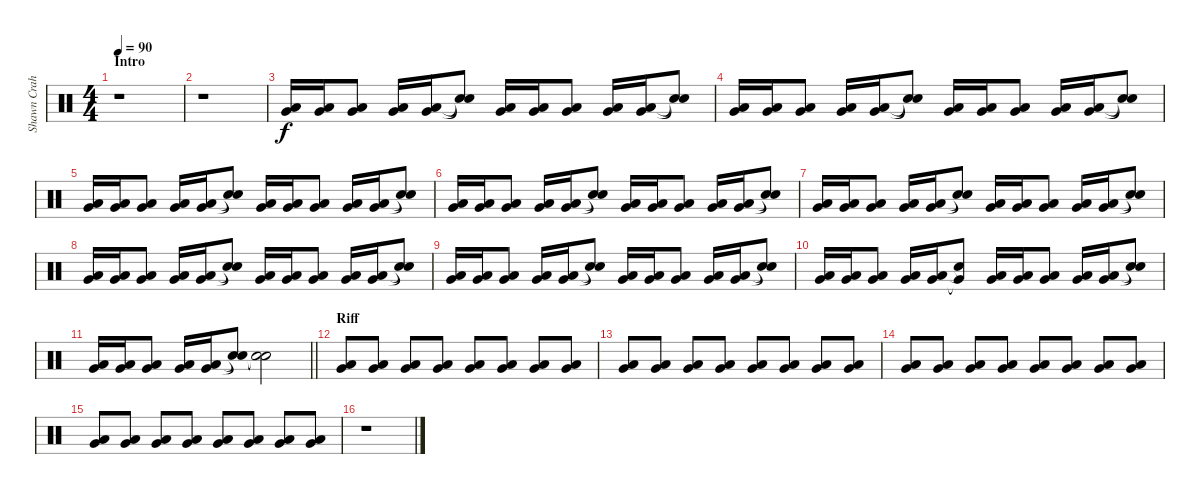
\track ("Shawn Crahan" "Shawn Crah") {instrument percussion}
\staff {score}
\articulation defaults
\ts (4 4)
\section ("" "Intro ")
\tempo 90
\clef neutral
\ks c
r.1{dy f} |
r.1 |
("Very Low Tom (hit)" "Low Floor Tom (hit)").16 ("Very Low Tom (hit)" "Low Floor Tom (hit)").16 ("Very Low Tom (hit)" "Low Floor Tom (hit)").8 ("Very Low Tom (hit)" "Low Floor Tom (hit)").16 ("Very Low Tom (hit)" "Low Floor Tom (hit)").16 ("Snare (hit)"{t} "Snare (hit)"{t}).8 ("Very Low Tom (hit)" "Low Floor Tom (hit)").16 ("Very Low Tom (hit)" "Low Floor Tom (hit)").16 ("Very Low Tom (hit)" "Low Floor Tom (hit)").8 ("Very Low Tom (hit)" "Low Floor Tom (hit)").16 ("Very Low Tom (hit)" "Low Floor Tom (hit)").16 ("Snare (hit)"{t} "Snare (hit)"{t}).8 |
("Very Low Tom (hit)" "Low Floor Tom (hit)").16 ("Very Low Tom (hit)" "Low Floor Tom (hit)").16 ("Very Low Tom (hit)" "Low Floor Tom (hit)").8 ("Very Low Tom (hit)" "Low Floor Tom (hit)").16 ("Very Low Tom (hit)" "Low Floor Tom (hit)").16 ("Snare (hit)"{t} "Snare (hit)"{t}).8 ("Very Low Tom (hit)" "Low Floor Tom (hit)").16 ("Very Low Tom (hit)" "Low Floor Tom (hit)").16 ("Very Low Tom (hit)" "Low Floor Tom (hit)").8 ("Very Low Tom (hit)" "Low Floor Tom (hit)").16 ("Very Low Tom (hit)" "Low Floor Tom (hit)").16 ("Snare (hit)"{t} "Snare (hit)"{t}).8 |
("Very Low Tom (hit)" "Low Floor Tom (hit)").16 ("Very Low Tom (hit)" "Low Floor Tom (hit)").16 ("Very Low Tom (hit)" "Low Floor Tom (hit)").8 ("Very Low Tom (hit)" "Low Floor Tom (hit)").16 ("Very Low Tom (hit)" "Low Floor Tom (hit)").16 ("Snare (hit)"{t} "Snare (hit)"{t}).8 ("Very Low Tom (hit)" "Low Floor Tom (hit)").16 ("Very Low Tom (hit)" "Low Floor Tom (hit)").16 ("Very Low Tom (hit)" "Low Floor Tom (hit)").8 ("Very Low Tom (hit)" "Low Floor Tom (hit)").16 ("Very Low Tom (hit)" "Low Floor Tom (hit)").16 ("Snare (hit)"{t} "Snare (hit)"{t}).8 |
("Very Low Tom (hit)" "Low Floor Tom (hit)").16 ("Very Low Tom (hit)" "Low Floor Tom (hit)").16 ("Very Low Tom (hit)" "Low Floor Tom (hit)").8 ("Very Low Tom (hit)" "Low Floor Tom (hit)").16 ("Very Low Tom (hit)" "Low Floor Tom (hit)").16 ("Snare (hit)"{t} "Snare (hit)"{t}).8 ("Very Low Tom (hit)" "Low Floor Tom (hit)").16 ("Very Low Tom (hit)" "Low Floor Tom (hit)").16 ("Very Low Tom (hit)" "Low Floor Tom (hit)").8 ("Very Low Tom (hit)" "Low Floor Tom (hit)").16 ("Very Low Tom (hit)" "Low Floor Tom (hit)").16 ("Snare (hit)"{t} "Snare (hit)"{t}).8 |
("Very Low Tom (hit)" "Low Floor Tom (hit)").16 ("Very Low Tom (hit)" "Low Floor Tom (hit)").16 ("Very Low Tom (hit)" "Low Floor Tom (hit)").8 ("Very Low Tom (hit)" "Low Floor Tom (hit)").16 ("Very Low Tom (hit)" "Low Floor Tom (hit)").16 ("Snare (hit)"{t} "Snare (hit)"{t}).8 ("Very Low Tom (hit)" "Low Floor Tom (hit)").16 ("Very Low Tom (hit)" "Low Floor Tom (hit)").16 ("Very Low Tom (hit)" "Low Floor Tom (hit)").8 ("Very Low Tom (hit)" "Low Floor Tom (hit)").16 ("Very Low Tom (hit)" "Low Floor Tom (hit)").16 ("Snare (hit)"{t} "Snare (hit)"{t}).8 |
("Very Low Tom (hit)" "Low Floor Tom (hit)").16 ("Very Low Tom (hit)" "Low Floor Tom (hit)").16 ("Very Low Tom (hit)" "Low Floor Tom (hit)").8 ("Very Low Tom (hit)" "Low Floor Tom (hit)").16 ("Very Low Tom (hit)" "Low Floor Tom (hit)").16 ("Snare (hit)"{t} "Snare (hit)"{t}).8 ("Very Low Tom (hit)" "Low Floor Tom (hit)").16 ("Very Low Tom (hit)" "Low Floor Tom (hit)").16 ("Very Low Tom (hit)" "Low Floor Tom (hit)").8 ("Very Low Tom (hit)" "Low Floor Tom (hit)").16 ("Very Low Tom (hit)" "Low Floor Tom (hit)").16 ("Snare (hit)"{t} "Snare (hit)"{t}).8 |
("Very Low Tom (hit)" "Low Floor Tom (hit)").16 ("Very Low Tom (hit)" "Low Floor Tom (hit)").16 ("Very Low Tom (hit)" "Low Floor Tom (hit)").8 ("Very Low Tom (hit)" "Low Floor Tom (hit)").16 ("Very Low Tom (hit)" "Low Floor Tom (hit)").16 ("Snare (hit)"{t} "Snare (hit)"{t}).8 ("Very Low Tom (hit)" "Low Floor Tom (hit)").16 ("Very Low Tom (hit)" "Low Floor Tom (hit)").16 ("Very Low Tom (hit)" "Low Floor Tom (hit)").8 ("Very Low Tom (hit)" "Low Floor Tom (hit)").16 ("Very Low Tom (hit)" "Low Floor Tom (hit)").16 ("Snare (hit)"{t} "Snare (hit)"{t}).8 |
("Very Low Tom (hit)" "Low Floor Tom (hit)").16 ("Very Low Tom (hit)" "Low Floor Tom (hit)").16 ("Very Low Tom (hit)" "Low Floor Tom (hit)").8 ("Very Low Tom (hit)" "Low Floor Tom (hit)").16 ("Very Low Tom (hit)" "Low Floor Tom (hit)").16 ("Very Low Tom (hit)"{t} "Snare (hit)"{t}).8 ("Very Low Tom (hit)" "Low Floor Tom (hit)").16 ("Very Low Tom (hit)" "Low Floor Tom (hit)").16 ("Very Low Tom (hit)" "Low Floor Tom (hit)").8 ("Very Low Tom (hit)" "Low Floor Tom (hit)").16 ("Very Low Tom (hit)" "Low Floor Tom (hit)").16 ("Snare (hit)"{t} "Snare (hit)"{t}).8 |
\barLineRight lightlight
("Very Low Tom (hit)" "Low Floor Tom (hit)").16 ("Very Low Tom (hit)" "Low Floor Tom (hit)").16 ("Very Low Tom (hit)" "Low Floor Tom (hit)").8 ("Very Low Tom (hit)" "Low Floor Tom (hit)").16 ("Very Low Tom (hit)" "Low Floor Tom (hit)").16 ("Snare (hit)"{t} "Snare (hit)"{t}).8 ("Snare (hit)"{t} "Snare (hit)"{t}).2 |
\section ("" "Riff")
("Very Low Tom (hit)" "Low Floor Tom (hit)").8 ("Very Low Tom (hit)" "Low Floor Tom (hit)").8 ("Very Low Tom (hit)" "Low Floor Tom (hit)").8 ("Very Low Tom (hit)" "Low Floor Tom (hit)").8 ("Very Low Tom (hit)" "Low Floor Tom (hit)").8 ("Very Low Tom (hit)" "Low Floor Tom (hit)").8 ("Very Low Tom (hit)" "Low Floor Tom (hit)").8 ("Very Low Tom (hit)" "Low Floor Tom (hit)").8 |
("Very Low Tom (hit)" "Low Floor Tom (hit)").8 ("Very Low Tom (hit)" "Low Floor Tom (hit)").8 ("Very Low Tom (hit)" "Low Floor Tom (hit)").8 ("Very Low Tom (hit)" "Low Floor Tom (hit)").8 ("Very Low Tom (hit)" "Low Floor Tom (hit)").8 ("Very Low Tom (hit)" "Low Floor Tom (hit)").8 ("Very Low Tom (hit)" "Low Floor Tom (hit)").8 ("Very Low Tom (hit)" "Low Floor Tom (hit)").8 |
("Very Low Tom (hit)" "Low Floor Tom (hit)").8 ("Very Low Tom (hit)" "Low Floor Tom (hit)").8 ("Very Low Tom (hit)" "Low Floor Tom (hit)").8 ("Very Low Tom (hit)" "Low Floor Tom (hit)").8 ("Very Low Tom (hit)" "Low Floor Tom (hit)").8 ("Very Low Tom (hit)" "Low Floor Tom (hit)").8 ("Very Low Tom (hit)" "Low Floor Tom (hit)").8 ("Very Low Tom (hit)" "Low Floor Tom (hit)").8 |
("Very Low Tom (hit)" "Low Floor Tom (hit)").8 ("Very Low Tom (hit)" "Low Floor Tom (hit)").8 ("Very Low Tom (hit)" "Low Floor Tom (hit)").8 ("Very Low Tom (hit)" "Low Floor Tom (hit)").8 ("Very Low Tom (hit)" "Low Floor Tom (hit)").8 ("Very Low Tom (hit)" "Low Floor Tom (hit)").8 ("Very Low Tom (hit)" "Low Floor Tom (hit)").8 ("Very Low Tom (hit)" "Low Floor Tom (hit)").8 |
r.1
